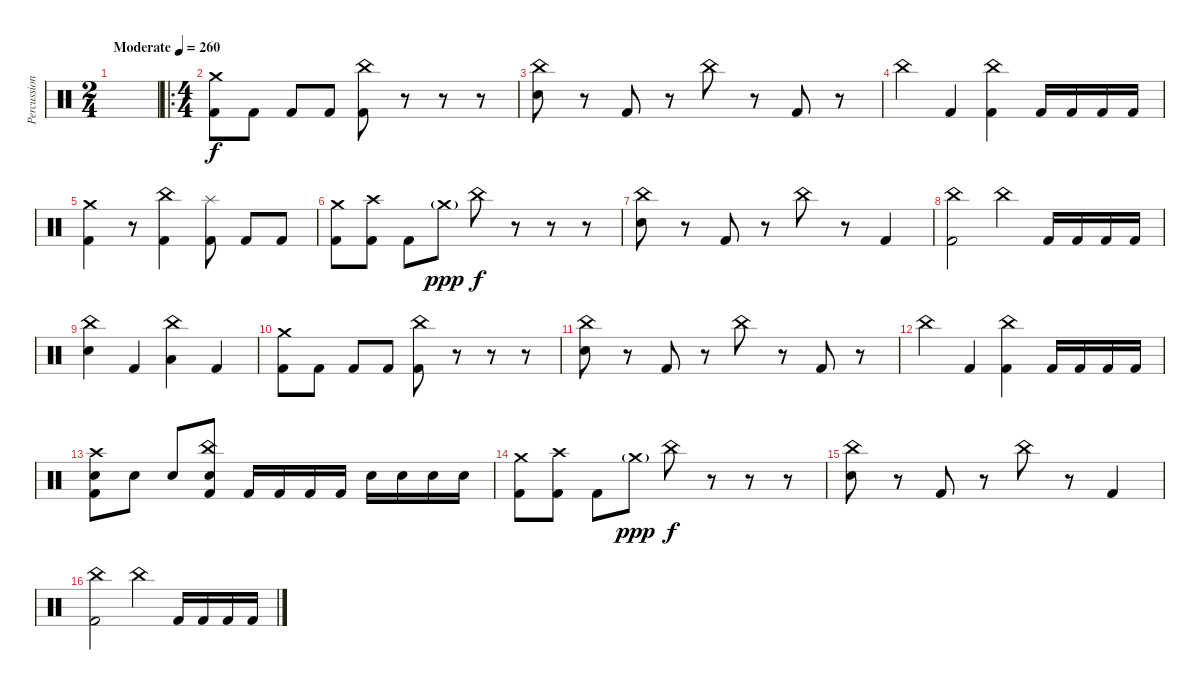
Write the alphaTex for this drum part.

\track ("Percussion" "Percussion") {instrument percussion}
\staff {score}
\articulation defaults
\ts (2 4)
\tempo (260 "Moderate")
\clef neutral
\ks c
|
\ro
\ts (4 4)
("Crash medium (hit)" "Kick (hit) 2").8 "Kick (hit) 2".8 "Kick (hit) 2".8 "Kick (hit) 2".8 ("China (hit)" "Kick (hit) 2").8 r.8 r.8 r.8 |
("China (hit)" "Electric Snare (hit)").8 r.8 "Kick (hit) 2".8 r.8 "China (hit)".8 r.8 "Kick (hit) 2".8 r.8 |
"China (hit)".4 "Kick (hit) 2".4 ("China (hit)" "Kick (hit) 2").4 "Kick (hit) 2".16 "Kick (hit) 2".16 "Kick (hit) 2".16 "Kick (hit) 2".16 |
("Crash medium (hit)" "Kick (hit) 2").4 r.8 ("China (hit)" "Kick (hit) 2").4 ("Splash (hit)" "Kick (hit) 2").8 "Kick (hit) 2".8 "Kick (hit) 2".8 |
("Crash medium (hit)" "Kick (hit) 2").8 ("Crash high (hit)" "Kick (hit) 2").8 "Kick (hit) 2".8 "Crash medium (hit)"{g}.8{dy ppp} "China (hit)".8{dy f} r.8 r.8 r.8 |
("China (hit)" "Electric Snare (hit)").8 r.8 "Kick (hit) 2".8 r.8 "China (hit)".8 r.8 "Kick (hit) 2".4 |
("China (hit)" "Kick (hit) 2").2 "China (hit)".4 "Kick (hit) 2".16 "Kick (hit) 2".16 "Kick (hit) 2".16 "Kick (hit) 2".16 |
("China (hit)" "Electric Snare (hit)").4 "Kick (hit) 2".4 ("China (hit)" "Low Tom (hit)").4 "Kick (hit) 2".4 |
("Crash medium (hit)" "Kick (hit) 2").8 "Kick (hit) 2".8 "Kick (hit) 2".8 "Kick (hit) 2".8 ("China (hit)" "Kick (hit) 2").8 r.8 r.8 r.8 |
("China (hit)" "Electric Snare (hit)").8 r.8 "Kick (hit) 2".8 r.8 "China (hit)".8 r.8 "Kick (hit) 2".8 r.8 |
"China (hit)".4 "Kick (hit) 2".4 ("China (hit)" "Kick (hit) 2").4 "Kick (hit) 2".16 "Kick (hit) 2".16 "Kick (hit) 2".16 "Kick (hit) 2".16 |
("Crash high (hit)" "Electric Snare (hit)" "Kick (hit) 2").8 "Electric Snare (hit)".8 "Electric Snare (hit)".8 ("China (hit)" "Electric Snare (hit)" "Kick (hit) 2").8 "Kick (hit) 2".16 "Kick (hit) 2".16 "Kick (hit) 2".16 "Kick (hit) 2".16 "Electric Snare (hit)".16 "Electric Snare (hit)".16 "Electric Snare (hit)".16 "Electric Snare (hit)".16 |
("Crash medium (hit)" "Kick (hit) 2").8 ("Crash high (hit)" "Kick (hit) 2").8 "Kick (hit) 2".8 "Crash medium (hit)"{g}.8{dy ppp} "China (hit)".8{dy f} r.8 r.8 r.8 |
("China (hit)" "Electric Snare (hit)").8 r.8 "Kick (hit) 2".8 r.8 "China (hit)".8 r.8 "Kick (hit) 2".4 |
("China (hit)" "Kick (hit) 2").2 "China (hit)".4 "Kick (hit) 2".16 "Kick (hit) 2".16 "Kick (hit) 2".16 "Kick (hit) 2".16
